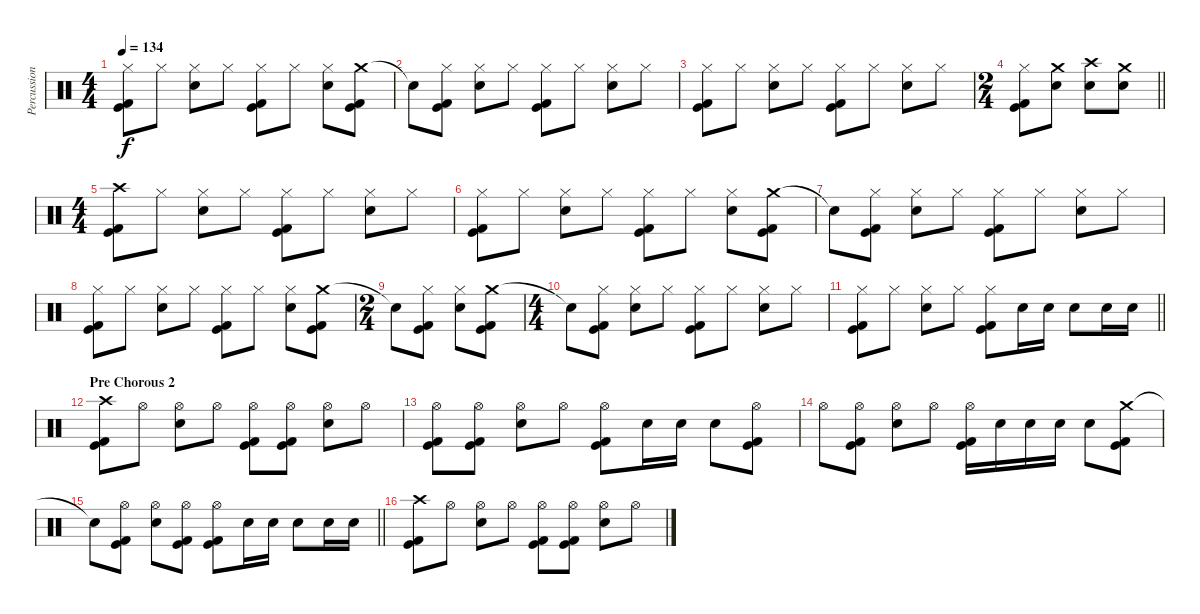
\track ("Percussion" "Percussion") {instrument percussion}
\staff {score}
\articulation defaults
\ts (4 4)
\tempo 134
\clef neutral
\ks c
("Hi-Hat (closed)" "Kick (hit)" "Kick (hit) 2").8{dy f} "Hi-Hat (closed)".8 ("Hi-Hat (closed)" "Electric Snare (hit)").8 "Hi-Hat (closed)".8 ("Hi-Hat (closed)" "Kick (hit)" "Kick (hit) 2").8 "Hi-Hat (closed)".8 ("Hi-Hat (closed)" "Electric Snare (hit)").8 ("Crash medium (hit)" "Kick (hit)" "Kick (hit) 2").8 |
"Snare (hit)"{t}.8 ("Hi-Hat (closed)" "Kick (hit)" "Kick (hit) 2").8 ("Hi-Hat (closed)" "Electric Snare (hit)").8 "Hi-Hat (closed)".8 ("Hi-Hat (closed)" "Kick (hit)" "Kick (hit) 2").8 "Hi-Hat (closed)".8 ("Hi-Hat (closed)" "Electric Snare (hit)").8 "Hi-Hat (closed)".8 |
("Hi-Hat (closed)" "Kick (hit)" "Kick (hit) 2").8 "Hi-Hat (closed)".8 ("Hi-Hat (closed)" "Electric Snare (hit)").8 "Hi-Hat (closed)".8 ("Hi-Hat (closed)" "Kick (hit)" "Kick (hit) 2").8 "Hi-Hat (closed)".8 ("Hi-Hat (closed)" "Electric Snare (hit)").8 "Hi-Hat (closed)".8 |
\ts (2 4)
\barLineRight lightlight
("Hi-Hat (closed)" "Kick (hit)" "Kick (hit) 2").8 ("Crash medium (hit)" "Electric Snare (hit)").8 ("Crash high (hit)" "Electric Snare (hit)").8 ("Crash medium (hit)" "Electric Snare (hit)").8 |
\ts (4 4)
\section ("" "")
("Crash high (hit)" "Kick (hit)" "Kick (hit) 2").8 "Hi-Hat (closed)".8 ("Hi-Hat (closed)" "Electric Snare (hit)").8 "Hi-Hat (closed)".8 ("Hi-Hat (closed)" "Kick (hit)" "Kick (hit) 2").8 "Hi-Hat (closed)".8 ("Hi-Hat (closed)" "Electric Snare (hit)").8 "Hi-Hat (closed)".8 |
("Hi-Hat (closed)" "Kick (hit)" "Kick (hit) 2").8 "Hi-Hat (closed)".8 ("Hi-Hat (closed)" "Electric Snare (hit)").8 "Hi-Hat (closed)".8 ("Hi-Hat (closed)" "Kick (hit)" "Kick (hit) 2").8 "Hi-Hat (closed)".8 ("Hi-Hat (closed)" "Electric Snare (hit)").8 ("Crash medium (hit)" "Kick (hit)" "Kick (hit) 2").8 |
"Snare (hit)"{t}.8 ("Hi-Hat (closed)" "Kick (hit)" "Kick (hit) 2").8 ("Hi-Hat (closed)" "Electric Snare (hit)").8 "Hi-Hat (closed)".8 ("Hi-Hat (closed)" "Kick (hit)" "Kick (hit) 2").8 "Hi-Hat (closed)".8 ("Hi-Hat (closed)" "Electric Snare (hit)").8 "Hi-Hat (closed)".8 |
("Hi-Hat (closed)" "Kick (hit)" "Kick (hit) 2").8 "Hi-Hat (closed)".8 ("Hi-Hat (closed)" "Electric Snare (hit)").8 "Hi-Hat (closed)".8 ("Hi-Hat (closed)" "Kick (hit)" "Kick (hit) 2").8 "Hi-Hat (closed)".8 ("Hi-Hat (closed)" "Electric Snare (hit)").8 ("Crash medium (hit)" "Kick (hit)" "Kick (hit) 2").8 |
\ts (2 4)
"Snare (hit)"{t}.8 ("Hi-Hat (closed)" "Kick (hit)" "Kick (hit) 2").8 ("Hi-Hat (closed)" "Electric Snare (hit)").8 ("Crash medium (hit)" "Kick (hit)" "Kick (hit) 2").8 |
\ts (4 4)
"Snare (hit)"{t}.8 ("Hi-Hat (closed)" "Kick (hit)" "Kick (hit) 2").8 ("Hi-Hat (closed)" "Electric Snare (hit)").8 "Hi-Hat (closed)".8 ("Hi-Hat (closed)" "Kick (hit)" "Kick (hit) 2").8 "Hi-Hat (closed)".8 ("Hi-Hat (closed)" "Electric Snare (hit)").8 "Hi-Hat (closed)".8 |
\barLineRight lightlight
("Hi-Hat (closed)" "Kick (hit)" "Kick (hit) 2").8 "Hi-Hat (closed)".8 ("Hi-Hat (closed)" "Electric Snare (hit)").8 "Hi-Hat (closed)".8 ("Hi-Hat (closed)" "Kick (hit)" "Kick (hit) 2").8 "Electric Snare (hit)".16 "Electric Snare (hit)".16 "Electric Snare (hit)".8 "Electric Snare (hit)".16 "Electric Snare (hit)".16 |
\section ("" "Pre Chorous 2")
("Crash high (hit)" "Kick (hit)" "Kick (hit) 2").8 "Hi-Hat (open)".8 ("Hi-Hat (open)" "Electric Snare (hit)").8 "Hi-Hat (open)".8 ("Hi-Hat (open)" "Kick (hit)" "Kick (hit) 2").8 ("Hi-Hat (open)" "Kick (hit)" "Kick (hit) 2").8 ("Hi-Hat (open)" "Electric Snare (hit)").8 "Hi-Hat (open)".8 |
("Hi-Hat (open)" "Kick (hit)" "Kick (hit) 2").8 ("Hi-Hat (open)" "Kick (hit)" "Kick (hit) 2").8 ("Hi-Hat (open)" "Electric Snare (hit)").8 "Hi-Hat (open)".8 ("Hi-Hat (open)" "Kick (hit)" "Kick (hit) 2").8 "Electric Snare (hit)".16 "Electric Snare (hit)".16 "Electric Snare (hit)".8 ("Hi-Hat (open)" "Kick (hit)" "Kick (hit) 2").8 |
"Hi-Hat (open)".8 ("Hi-Hat (open)" "Kick (hit)" "Kick (hit) 2").8 ("Hi-Hat (open)" "Electric Snare (hit)").8 "Hi-Hat (open)".8 ("Hi-Hat (open)" "Kick (hit)" "Kick (hit) 2").16 "Electric Snare (hit)".16 "Electric Snare (hit)".16 "Electric Snare (hit)".16 "Electric Snare (hit)".8 ("Crash medium (hit)" "Kick (hit)" "Kick (hit) 2").8 |
\barLineRight lightlight "Snare (hit)"{t}.8
("Hi-Hat (open)" "Kick (hit)" "Kick (hit) 2").8 ("Hi-Hat (open)" "Electric Snare (hit)").8 ("Hi-Hat (open)" "Kick (hit)" "Kick (hit) 2").8 ("Hi-Hat (open)" "Kick (hit)" "Kick (hit) 2").8 "Electric Snare (hit)".16 "Electric Snare (hit)".16 "Electric Snare (hit)".8 "Electric Snare (hit)".16 "Electric Snare (hit)".16 |
("Crash high (hit)" "Kick (hit)" "Kick (hit) 2").8 "Hi-Hat (open)".8 ("Hi-Hat (open)" "Electric Snare (hit)").8 "Hi-Hat (open)".8 ("Hi-Hat (open)" "Kick (hit)" "Kick (hit) 2").8 ("Hi-Hat (open)" "Kick (hit)" "Kick (hit) 2").8 ("Hi-Hat (open)" "Electric Snare (hit)").8 "Hi-Hat (open)".8
